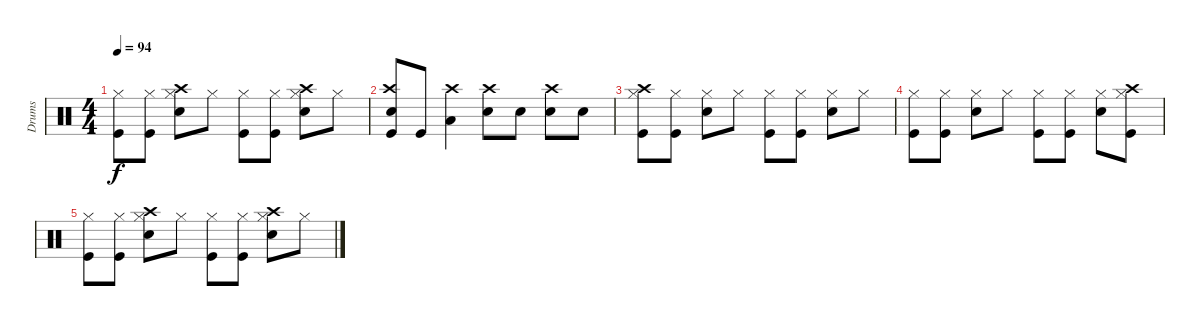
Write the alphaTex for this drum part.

\track ("Drums" "Drums") {instrument percussion}
\staff {score}
\articulation defaults
\ts (4 4)
\tempo 94
\clef neutral
\ks c
("Hi-Hat (closed)" "Kick (hit)").8{dy f} ("Hi-Hat (closed)" "Kick (hit)").8 ("Crash high (hit)" "Hi-Hat (closed)" "Snare (hit) 2").8 "Hi-Hat (closed)".8 ("Hi-Hat (closed)" "Kick (hit)").8 ("Hi-Hat (closed)" "Kick (hit)").8 ("Crash high (hit)" "Hi-Hat (closed)" "Snare (hit) 2").8 "Hi-Hat (closed)".8 |
("Crash high (hit)" "Snare (hit) 2" "Kick (hit)").8 "Kick (hit)".8 ("Crash high (hit)" "Low Tom (hit)").4 ("Crash high (hit)" "Snare (hit) 2").8 "Snare (hit) 2".8 ("Crash high (hit)" "Snare (hit) 2").8 "Snare (hit) 2".8 |
("Crash high (hit)" "Hi-Hat (closed)" "Kick (hit)").8 ("Hi-Hat (closed)" "Kick (hit)").8 ("Hi-Hat (closed)" "Snare (hit) 2").8 "Hi-Hat (closed)".8 ("Hi-Hat (closed)" "Kick (hit)").8 ("Hi-Hat (closed)" "Kick (hit)").8 ("Hi-Hat (closed)" "Snare (hit) 2").8 "Hi-Hat (closed)".8 |
("Hi-Hat (closed)" "Kick (hit)").8 ("Hi-Hat (closed)" "Kick (hit)").8 ("Hi-Hat (closed)" "Snare (hit) 2").8 "Hi-Hat (closed)".8 ("Hi-Hat (closed)" "Kick (hit)").8 ("Hi-Hat (closed)" "Kick (hit)").8 ("Hi-Hat (closed)" "Snare (hit) 2").8 ("Crash high (hit)" "Hi-Hat (closed)" "Kick (hit)").8 |
("Hi-Hat (closed)" "Kick (hit)").8 ("Hi-Hat (closed)" "Kick (hit)").8 ("Crash high (hit)" "Hi-Hat (closed)" "Snare (hit) 2").8 "Hi-Hat (closed)".8 ("Hi-Hat (closed)" "Kick (hit)").8 ("Hi-Hat (closed)" "Kick (hit)").8 ("Crash high (hit)" "Hi-Hat (closed)" "Snare (hit) 2").8 "Hi-Hat (closed)".8
